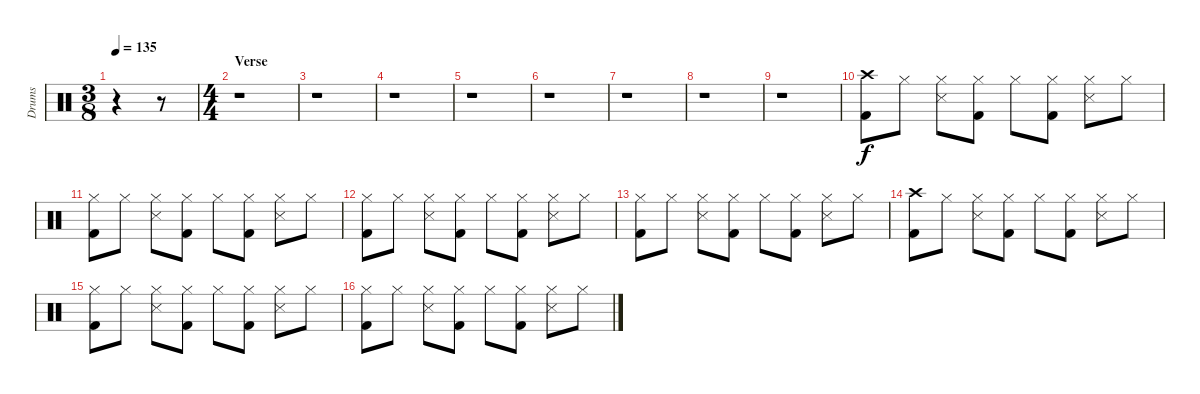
\track ("Drums" "Drums") {instrument percussion}
\staff {score}
\articulation defaults
\ts (3 8)
\tempo 135
\clef neutral
\ks c
r.4{dy f} r.8 |
\ts (4 4)
\section ("" "Verse")
r.1 |
r.1 |
r.1 |
r.1 |
r.1 |
r.1 |
r.1 |
r.1 |
("Crash high (hit)" "Kick (hit) 2").8 "Hi-Hat (closed)".8 ("Snare (side stick) 3" "Hi-Hat (closed)").8 ("Kick (hit) 2" "Hi-Hat (closed)").8 "Hi-Hat (closed)".8 ("Kick (hit) 2" "Hi-Hat (closed)").8 ("Snare (side stick) 3" "Hi-Hat (closed)").8 "Hi-Hat (closed)".8 |
("Kick (hit) 2" "Hi-Hat (closed)").8 "Hi-Hat (closed)".8 ("Snare (side stick) 3" "Hi-Hat (closed)").8 ("Kick (hit) 2" "Hi-Hat (closed)").8 "Hi-Hat (closed)".8 ("Kick (hit) 2" "Hi-Hat (closed)").8 ("Snare (side stick) 3" "Hi-Hat (closed)").8 "Hi-Hat (closed)".8 |
("Kick (hit) 2" "Hi-Hat (closed)").8 "Hi-Hat (closed)".8 ("Snare (side stick) 3" "Hi-Hat (closed)").8 ("Kick (hit) 2" "Hi-Hat (closed)").8 "Hi-Hat (closed)".8 ("Kick (hit) 2" "Hi-Hat (closed)").8 ("Snare (side stick) 3" "Hi-Hat (closed)").8 "Hi-Hat (closed)".8 |
("Kick (hit) 2" "Hi-Hat (closed)").8 "Hi-Hat (closed)".8 ("Snare (side stick) 3" "Hi-Hat (closed)").8 ("Kick (hit) 2" "Hi-Hat (closed)").8 "Hi-Hat (closed)".8 ("Kick (hit) 2" "Hi-Hat (closed)").8 ("Snare (side stick) 3" "Hi-Hat (closed)").8 "Hi-Hat (closed)".8 |
("Crash high (hit)" "Kick (hit) 2").8 "Hi-Hat (closed)".8 ("Snare (side stick) 3" "Hi-Hat (closed)").8 ("Kick (hit) 2" "Hi-Hat (closed)").8 "Hi-Hat (closed)".8 ("Kick (hit) 2" "Hi-Hat (closed)").8 ("Snare (side stick) 3" "Hi-Hat (closed)").8 "Hi-Hat (closed)".8 |
("Kick (hit) 2" "Hi-Hat (closed)").8 "Hi-Hat (closed)".8 ("Snare (side stick) 3" "Hi-Hat (closed)").8 ("Kick (hit) 2" "Hi-Hat (closed)").8 "Hi-Hat (closed)".8 ("Kick (hit) 2" "Hi-Hat (closed)").8 ("Snare (side stick) 3" "Hi-Hat (closed)").8 "Hi-Hat (closed)".8 |
("Kick (hit) 2" "Hi-Hat (closed)").8 "Hi-Hat (closed)".8 ("Snare (side stick) 3" "Hi-Hat (closed)").8 ("Kick (hit) 2" "Hi-Hat (closed)").8 "Hi-Hat (closed)".8 ("Kick (hit) 2" "Hi-Hat (closed)").8 ("Snare (side stick) 3" "Hi-Hat (closed)").8 "Hi-Hat (closed)".8
